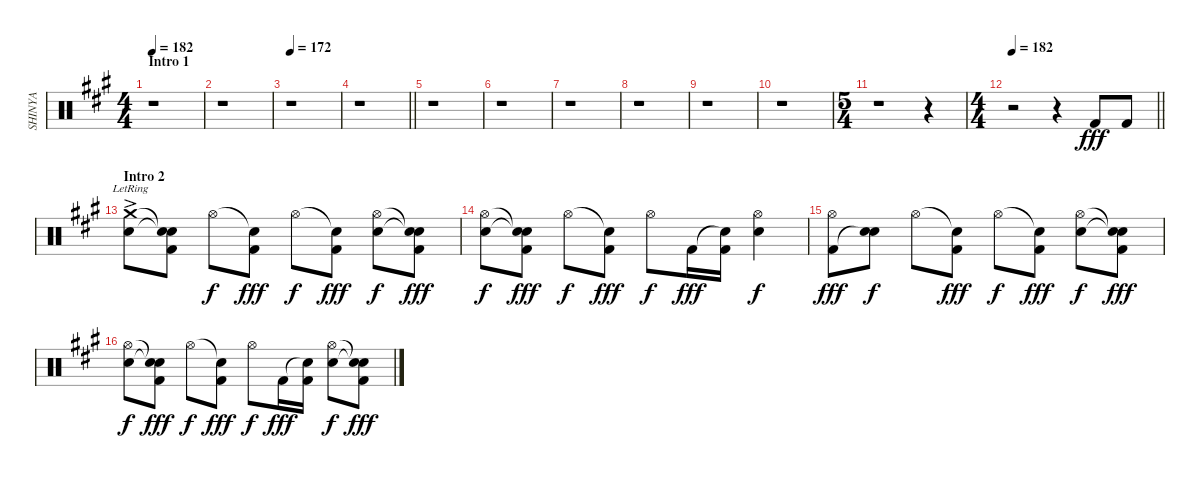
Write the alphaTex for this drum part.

\track ("SHINYA" "SHINYA") {instrument percussion}
\staff {score}
\articulation defaults
\ts (4 4)
\section ("" "Intro 1")
\tempo 182
\tempo 163
\tempo 182
\clef neutral
\ks a
r.1{dy fff} |
r.1 |
\tempo 172
r.1 |
\barLineRight lightlight
r.1 |
r.1 |
r.1 |
r.1 |
r.1 |
r.1 |
r.1 |
\ts (5 4)
r.1 r.4 |
\ts (4 4)
\tempo 182
\barLineRight lightlight
r.2 r.4 "Kick (hit) 2".8 "Kick (hit) 2".8 |
\section ("" "Intro 2")
("Crash medium (hit)"{ac lr} "Electric Snare (hit)").8 ("Snare (hit)"{t} "Snare (hit)"{t} "Kick (hit) 2").8 "Hi-Hat (open)".8{dy f} ("Snare (hit)"{t} "Kick (hit) 2").8{dy fff} "Hi-Hat (open)".8{dy f} ("Snare (hit)"{t} "Kick (hit) 2").8{dy fff} ("Hi-Hat (open)" "Electric Snare (hit)").8{dy f} ("Snare (hit)"{t} "Snare (hit)"{t} "Kick (hit) 2").8{dy fff} |
("Hi-Hat (open)" "Electric Snare (hit)").8{dy f} ("Snare (hit)"{t} "Snare (hit)"{t} "Kick (hit) 2").8{dy fff} "Hi-Hat (open)".8{dy f} ("Snare (hit)"{t} "Kick (hit) 2").8{dy fff} "Hi-Hat (open)".8{dy f} "Kick (hit) 2".16{dy fff} ("Snare (hit)"{t} "Kick (hit) 2").16 ("Hi-Hat (open)" "Electric Snare (hit)").4{dy f} |
("Hi-Hat (open)" "Kick (hit) 2").8{dy fff} ("Electric Snare (hit)" "Snare (hit)"{t}).8{dy f} "Hi-Hat (open)".8 ("Snare (hit)"{t} "Kick (hit) 2").8{dy fff} "Hi-Hat (open)".8{dy f} ("Snare (hit)"{t} "Kick (hit) 2").8{dy fff} ("Hi-Hat (open)" "Electric Snare (hit)").8{dy f} ("Snare (hit)"{t} "Snare (hit)"{t} "Kick (hit) 2").8{dy fff} |
("Hi-Hat (open)" "Electric Snare (hit)").8{dy f} ("Snare (hit)"{t} "Snare (hit)"{t} "Kick (hit) 2").8{dy fff} "Hi-Hat (open)".8{dy f} ("Snare (hit)"{t} "Kick (hit) 2").8{dy fff} "Hi-Hat (open)".8{dy f} "Kick (hit) 2".16{dy fff} ("Snare (hit)"{t} "Kick (hit) 2").16 ("Hi-Hat (open)" "Electric Snare (hit)").8{dy f} ("Snare (hit)"{t} "Snare (hit)"{t} "Kick (hit) 2").8{dy fff}
